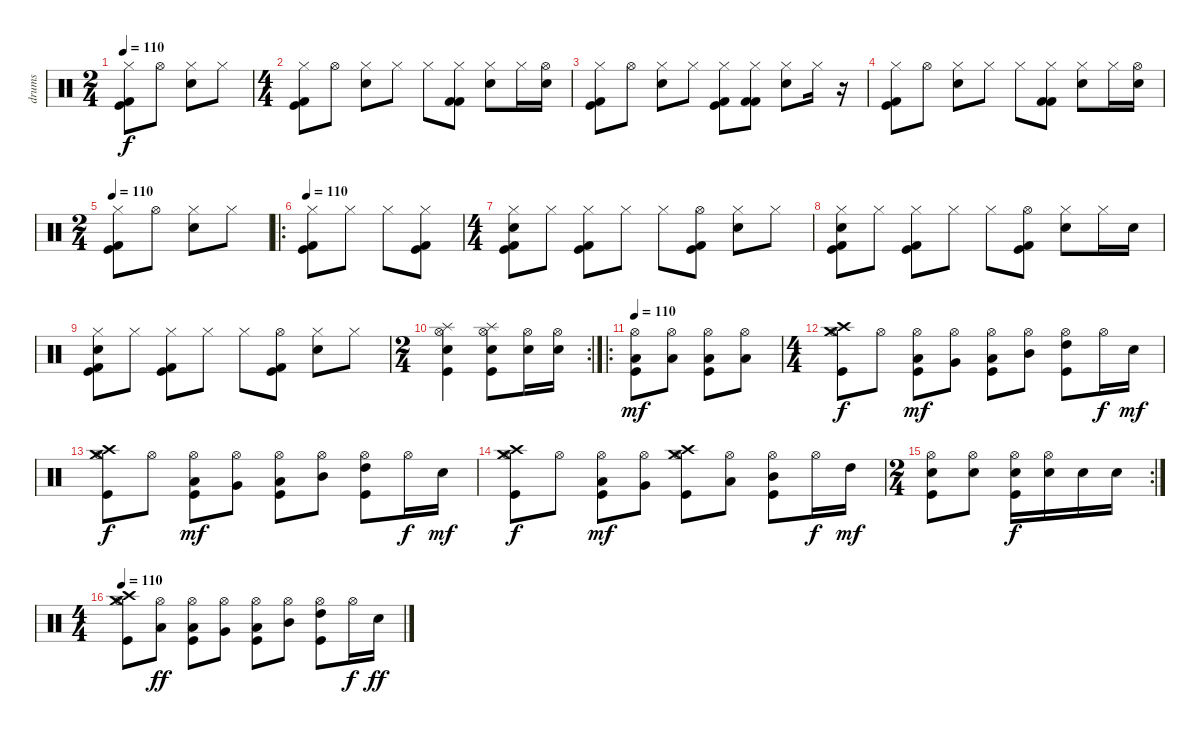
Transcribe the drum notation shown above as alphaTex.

\track ("drums" "drums") {instrument percussion}
\staff {score}
\articulation defaults
\ts (2 4)
\tempo 110
\clef neutral
\ks c
("Hi-Hat (closed)" "Kick (hit) 2" "Kick (hit)").8{dy f} "Hi-Hat (open)".8 ("Hi-Hat (closed)" "Electric Snare (hit)").8 "Hi-Hat (closed)".8 |
\ts (4 4)
("Hi-Hat (closed)" "Kick (hit) 2" "Kick (hit)").8 "Hi-Hat (open)".8 ("Hi-Hat (closed)" "Electric Snare (hit)").8 "Hi-Hat (closed)".8 "Hi-Hat (closed)".8 ("Hi-Hat (closed)" "Kick (hit) 2" "Kick (hit) 2").8 ("Hi-Hat (closed)" "Electric Snare (hit)").8 "Hi-Hat (closed)".16 ("Hi-Hat (open)" "Electric Snare (hit)").16 |
("Hi-Hat (closed)" "Kick (hit) 2" "Kick (hit)").8 "Hi-Hat (open)".8 ("Hi-Hat (closed)" "Electric Snare (hit)").8 "Hi-Hat (closed)".8 ("Hi-Hat (closed)" "Kick (hit) 2" "Kick (hit)").8 ("Hi-Hat (closed)" "Kick (hit) 2" "Kick (hit) 2").8 ("Hi-Hat (closed)" "Electric Snare (hit)").8 "Hi-Hat (closed)".16 r.16 |
("Hi-Hat (closed)" "Kick (hit) 2" "Kick (hit)").8 "Hi-Hat (open)".8 ("Hi-Hat (closed)" "Electric Snare (hit)").8 "Hi-Hat (closed)".8 "Hi-Hat (closed)".8 ("Hi-Hat (closed)" "Kick (hit) 2" "Kick (hit) 2").8 ("Hi-Hat (closed)" "Electric Snare (hit)").8 "Hi-Hat (closed)".16 ("Hi-Hat (open)" "Electric Snare (hit)").16 |
\ts (2 4)
\tempo 110
("Hi-Hat (closed)" "Kick (hit) 2" "Kick (hit)").8 "Hi-Hat (open)".8 ("Hi-Hat (closed)" "Electric Snare (hit)").8 "Hi-Hat (closed)".8 |
\ro
\tempo 110
("Hi-Hat (closed)" "Kick (hit) 2" "Kick (hit)").8 "Hi-Hat (closed)".8 "Hi-Hat (closed)".8 ("Hi-Hat (closed)" "Kick (hit) 2" "Kick (hit)").8 |
\ts (4 4)
("Hi-Hat (closed)" "Electric Snare (hit)" "Kick (hit) 2" "Kick (hit)").8 "Hi-Hat (closed)".8 ("Hi-Hat (closed)" "Kick (hit) 2" "Kick (hit)").8 "Hi-Hat (closed)".8 "Hi-Hat (closed)".8 ("Hi-Hat (open)" "Kick (hit) 2" "Kick (hit)").8 ("Hi-Hat (closed)" "Electric Snare (hit)").8 "Hi-Hat (closed)".8 |
("Hi-Hat (closed)" "Electric Snare (hit)" "Kick (hit) 2" "Kick (hit)").8 "Hi-Hat (closed)".8 ("Hi-Hat (closed)" "Kick (hit) 2" "Kick (hit)").8 "Hi-Hat (closed)".8 "Hi-Hat (closed)".8 ("Hi-Hat (open)" "Kick (hit) 2" "Kick (hit)").8 ("Hi-Hat (closed)" "Electric Snare (hit)").8 "Hi-Hat (closed)".16 "Electric Snare (hit)".16 |
("Hi-Hat (closed)" "Electric Snare (hit)" "Kick (hit) 2" "Kick (hit)").8 "Hi-Hat (closed)".8 ("Hi-Hat (closed)" "Kick (hit) 2" "Kick (hit)").8 "Hi-Hat (closed)".8 "Hi-Hat (closed)".8 ("Hi-Hat (open)" "Kick (hit) 2" "Kick (hit)").8 ("Hi-Hat (closed)" "Electric Snare (hit)").8 "Hi-Hat (closed)".8 |
\rc 2
\ts (2 4)
("Electric Snare (hit)" "Hi-Hat (open)" "Splash (hit)" "Kick (hit)").4 ("Electric Snare (hit)" "Hi-Hat (open)" "Splash (hit)" "Kick (hit)").8 ("Electric Snare (hit)" "Hi-Hat (open)").16 ("Electric Snare (hit)" "Hi-Hat (open)").16 |
\ro
\tempo 110
("Hi-Hat (open)" "Low Tom (hit)" "Kick (hit)").8{dy mf} ("Hi-Hat (open)" "Low Tom (hit)").8 ("Hi-Hat (open)" "Low Tom (hit)" "Kick (hit)").8 ("Hi-Hat (open)" "Low Tom (hit)").8 |
\ts (4 4)
("Hi-Hat (open)" "Crash high (hit)" "Crash medium (hit)" "Kick (hit)").8{dy f} "Hi-Hat (open)".8 ("Hi-Hat (open)" "Low Floor Tom (hit)" "Kick (hit)").8{dy mf} ("Hi-Hat (open)" "Very Low Tom (hit)").8 ("Hi-Hat (open)" "Low Tom (hit)" "Kick (hit)").8 ("Hi-Hat (open)" "Mid Tom (hit)").8 ("Hi-Hat (open)" "High Tom (hit)" "Kick (hit)").8 "Hi-Hat (open)".16{dy f} "Electric Snare (hit)".16{dy mf} |
("Hi-Hat (open)" "Crash high (hit)" "Crash medium (hit)" "Kick (hit)").8{dy f} "Hi-Hat (open)".8 ("Hi-Hat (open)" "Low Floor Tom (hit)" "Kick (hit)").8{dy mf} ("Hi-Hat (open)" "Very Low Tom (hit)").8 ("Hi-Hat (open)" "Low Tom (hit)" "Kick (hit)").8 ("Hi-Hat (open)" "Mid Tom (hit)").8 ("Hi-Hat (open)" "High Tom (hit)" "Kick (hit)").8 "Hi-Hat (open)".16{dy f} "Electric Snare (hit)".16{dy mf} |
("Hi-Hat (open)" "Crash high (hit)" "Crash medium (hit)" "Kick (hit)").8{dy f} "Hi-Hat (open)".8 ("Hi-Hat (open)" "Low Floor Tom (hit)" "Kick (hit)").8{dy mf} ("Hi-Hat (open)" "Very Low Tom (hit)").8 ("Hi-Hat (open)" "Crash high (hit)" "Crash medium (hit)" "Kick (hit)").8 ("Hi-Hat (open)" "Low Tom (hit)").8 ("Hi-Hat (open)" "Mid Tom (hit)" "Kick (hit)").8 "Hi-Hat (open)".16{dy f} "High Tom (hit)".16{dy mf} |
\rc 2
\ts (2 4)
("Hi-Hat (open)" "Electric Snare (hit)" "Kick (hit)").8 ("Hi-Hat (open)" "Electric Snare (hit)").8 ("Hi-Hat (open)" "Electric Snare (hit)" "Kick (hit)").16{dy f} ("Hi-Hat (open)" "Electric Snare (hit)").16 "Electric Snare (hit)".16 "Electric Snare (hit)".16 |
\ts (4 4)
\tempo 110
("Hi-Hat (open)" "Crash high (hit)" "Crash medium (hit)" "Kick (hit)").8 ("Hi-Hat (open)" "Low Tom (hit)").8{dy ff} ("Hi-Hat (open)" "Low Floor Tom (hit)" "Kick (hit)").8 ("Hi-Hat (open)" "Very Low Tom (hit)").8 ("Hi-Hat (open)" "Low Tom (hit)" "Kick (hit)").8 ("Hi-Hat (open)" "Mid Tom (hit)").8 ("Hi-Hat (open)" "High Tom (hit)" "Kick (hit)").8 "Hi-Hat (open)".16{dy f} "Electric Snare (hit)".16{dy ff}
